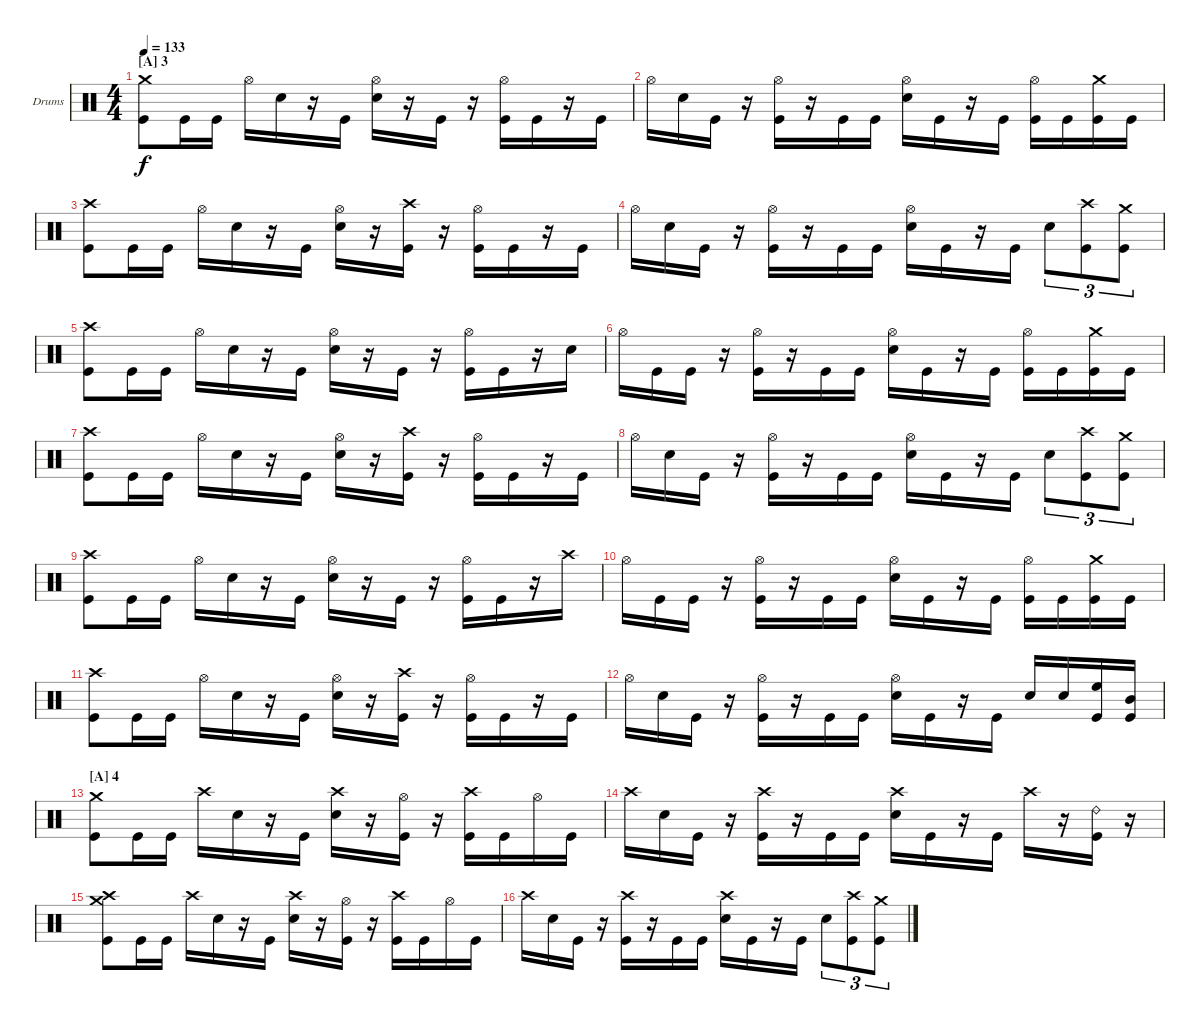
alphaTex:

\bracketExtendMode groupsimilarinstruments
\firstSystemTrackNameOrientation horizontal
\otherSystemsTrackNameOrientation horizontal
\track ("Ben Kazenoff" "Drums") {instrument percussion}
\staff {score}
\articulation defaults
\ts (4 4)
\section ("A" "3")
\tempo 133
\clef neutral
\ks c
("Crash medium (hit)" "Kick (hit)").8{dy f} "Kick (hit)".16 "Kick (hit)".16 "Hi-Hat (open)".16 "Snare (hit) 2".16 r.16 "Kick (hit)".16 ("Hi-Hat (open)" "Snare (hit) 2").16 r.16 "Kick (hit)".16 r.16 ("Hi-Hat (open)" "Kick (hit)").16 "Kick (hit)".16 r.16 "Kick (hit)".16 |
"Hi-Hat (open)".16 "Snare (hit) 2".16 "Kick (hit)".16 r.16 ("Hi-Hat (open)" "Kick (hit)").16 r.16 "Kick (hit)".16 "Kick (hit)".16 ("Hi-Hat (open)" "Snare (hit) 2").16 "Kick (hit)".16 r.16 "Kick (hit)".16 ("Kick (hit)" "Hi-Hat (open)").16 "Kick (hit)".16 ("Kick (hit)" "Crash medium (hit)").16 "Kick (hit)".16 |
("Crash high (hit)" "Kick (hit)").8 "Kick (hit)".16 "Kick (hit)".16 "Hi-Hat (open)".16 "Snare (hit) 2".16 r.16 "Kick (hit)".16 ("Hi-Hat (open)" "Snare (hit) 2").16 r.16 ("Crash high (hit)" "Kick (hit)").16 r.16 ("Hi-Hat (open)" "Kick (hit)").16 "Kick (hit)".16 r.16 "Kick (hit)".16 |
"Hi-Hat (open)".16 "Snare (hit) 2".16 "Kick (hit)".16 r.16 ("Hi-Hat (open)" "Kick (hit)").16 r.16 "Kick (hit)".16 "Kick (hit)".16 ("Hi-Hat (open)" "Snare (hit) 2").16 "Kick (hit)".16 r.16 "Kick (hit)".16 "Snare (hit) 2".8{tu (3 2)} ("Kick (hit)" "Crash high (hit)").8{tu (3 2)} ("Kick (hit)" "Crash medium (hit)").8{tu (3 2)} |
("Crash high (hit)" "Kick (hit)").8 "Kick (hit)".16 "Kick (hit)".16 "Hi-Hat (open)".16 "Snare (hit) 2".16 r.16 "Kick (hit)".16 ("Hi-Hat (open)" "Snare (hit) 2").16 r.16 "Kick (hit)".16 r.16 ("Hi-Hat (open)" "Kick (hit)").16 "Kick (hit)".16 r.16 "Snare (hit) 2".16 |
"Hi-Hat (open)".16 "Kick (hit)".16 "Kick (hit)".16 r.16 ("Hi-Hat (open)" "Kick (hit)").16 r.16 "Kick (hit)".16 "Kick (hit)".16 ("Hi-Hat (open)" "Snare (hit) 2").16 "Kick (hit)".16 r.16 "Kick (hit)".16 ("Kick (hit)" "Hi-Hat (open)").16 "Kick (hit)".16 ("Kick (hit)" "Crash medium (hit)").16 "Kick (hit)".16 |
("Crash high (hit)" "Kick (hit)").8 "Kick (hit)".16 "Kick (hit)".16 "Hi-Hat (open)".16 "Snare (hit) 2".16 r.16 "Kick (hit)".16 ("Hi-Hat (open)" "Snare (hit) 2").16 r.16 ("Crash high (hit)" "Kick (hit)").16 r.16 ("Hi-Hat (open)" "Kick (hit)").16 "Kick (hit)".16 r.16 "Kick (hit)".16 |
"Hi-Hat (open)".16 "Snare (hit) 2".16 "Kick (hit)".16 r.16 ("Hi-Hat (open)" "Kick (hit)").16 r.16 "Kick (hit)".16 "Kick (hit)".16 ("Hi-Hat (open)" "Snare (hit) 2").16 "Kick (hit)".16 r.16 "Kick (hit)".16 "Snare (hit) 2".8{tu (3 2)} ("Kick (hit)" "Crash high (hit)").8{tu (3 2)} ("Kick (hit)" "Crash medium (hit)").8{tu (3 2)} |
("Crash high (hit)" "Kick (hit)").8 "Kick (hit)".16 "Kick (hit)".16 "Hi-Hat (open)".16 "Snare (hit) 2".16 r.16 "Kick (hit)".16 ("Hi-Hat (open)" "Snare (hit) 2").16 r.16 "Kick (hit)".16 r.16 ("Hi-Hat (open)" "Kick (hit)").16 "Kick (hit)".16 r.16 "Crash high (hit)".16 |
"Hi-Hat (open)".16 "Kick (hit)".16 "Kick (hit)".16 r.16 ("Hi-Hat (open)" "Kick (hit)").16 r.16 "Kick (hit)".16 "Kick (hit)".16 ("Hi-Hat (open)" "Snare (hit) 2").16 "Kick (hit)".16 r.16 "Kick (hit)".16 ("Kick (hit)" "Hi-Hat (open)").16 "Kick (hit)".16 ("Kick (hit)" "Crash medium (hit)").16 "Kick (hit)".16 |
("Crash high (hit)" "Kick (hit)").8 "Kick (hit)".16 "Kick (hit)".16 "Hi-Hat (open)".16 "Snare (hit) 2".16 r.16 "Kick (hit)".16 ("Hi-Hat (open)" "Snare (hit) 2").16 r.16 ("Crash high (hit)" "Kick (hit)").16 r.16 ("Hi-Hat (open)" "Kick (hit)").16 "Kick (hit)".16 r.16 "Kick (hit)".16 |
"Hi-Hat (open)".16 "Snare (hit) 2".16 "Kick (hit)".16 r.16 ("Hi-Hat (open)" "Kick (hit)").16 r.16 "Kick (hit)".16 "Kick (hit)".16 ("Hi-Hat (open)" "Snare (hit) 2").16 "Kick (hit)".16 r.16 "Kick (hit)".16 "Snare (hit) 2".16 "Snare (hit) 2".16 ("High Floor Tom (hit)" "Kick (hit)").16 ("Mid Tom (hit)" "Kick (hit)").16 |
\section ("A" "4")
("Crash medium (hit)" "Kick (hit)").8 "Kick (hit)".16 "Kick (hit)".16 "Crash high (hit)".16 "Snare (hit) 2".16 r.16 "Kick (hit)".16 ("Crash high (hit)" "Snare (hit) 2").16 r.16 ("Hi-Hat (open)" "Kick (hit)").16 r.16 ("Crash high (hit)" "Kick (hit)").16 "Kick (hit)".16 "Hi-Hat (open)".16 "Kick (hit)".16 |
"Crash high (hit)".16 "Snare (hit) 2".16 "Kick (hit)".16 r.16 ("Crash high (hit)" "Kick (hit)").16 r.16 "Kick (hit)".16 "Kick (hit)".16 ("Crash high (hit)" "Snare (hit) 2").16 "Kick (hit)".16 r.16 "Kick (hit)".16 "Crash high (hit)".16 r.16 ("Kick (hit)" "Ride (bell) 2").16 r.16 |
("Crash high (hit)" "Kick (hit)" "Crash medium (hit)").8 "Kick (hit)".16 "Kick (hit)".16 "Crash high (hit)".16 "Snare (hit) 2".16 r.16 "Kick (hit)".16 ("Crash high (hit)" "Snare (hit) 2").16 r.16 ("Hi-Hat (open)" "Kick (hit)").16 r.16 ("Crash high (hit)" "Kick (hit)").16 "Kick (hit)".16 "Hi-Hat (open)".16 "Kick (hit)".16 |
"Crash high (hit)".16 "Snare (hit) 2".16 "Kick (hit)".16 r.16 ("Crash high (hit)" "Kick (hit)").16 r.16 "Kick (hit)".16 "Kick (hit)".16 ("Crash high (hit)" "Snare (hit) 2").16 "Kick (hit)".16 r.16 "Kick (hit)".16 "Snare (hit) 2".8{tu (3 2)} ("Kick (hit)" "Crash high (hit)").8{tu (3 2)} ("Kick (hit)" "Crash medium (hit)").8{tu (3 2)}
